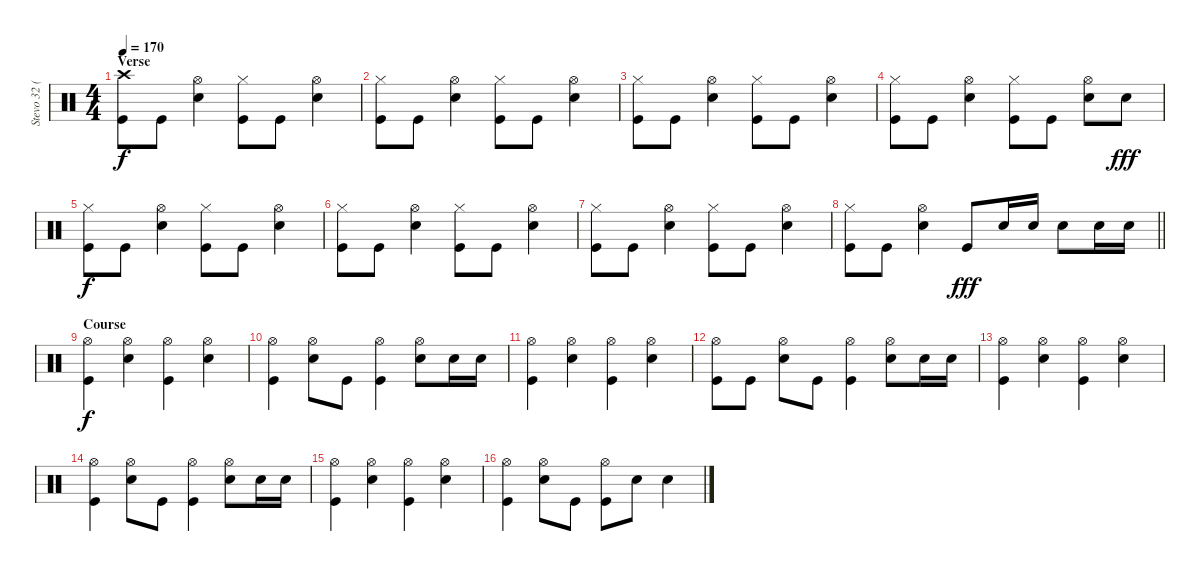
\track ("Stevo 32 (Drums)" "Stevo 32 (") {instrument percussion}
\staff {score}
\articulation defaults
\ts (4 4)
\section ("" "Verse")
\tempo 170
\clef neutral
\ks c
("Crash high (hit)" "Kick (hit)").8{dy f} "Kick (hit)".8 ("Hi-Hat (open)" "Electric Snare (hit)").4 ("Hi-Hat (closed)" "Kick (hit)").8 "Kick (hit)".8 ("Hi-Hat (open)" "Electric Snare (hit)").4 |
("Hi-Hat (closed)" "Kick (hit)").8 "Kick (hit)".8 ("Hi-Hat (open)" "Electric Snare (hit)").4 ("Hi-Hat (closed)" "Kick (hit)").8 "Kick (hit)".8 ("Hi-Hat (open)" "Electric Snare (hit)").4 |
("Hi-Hat (closed)" "Kick (hit)").8 "Kick (hit)".8 ("Hi-Hat (open)" "Electric Snare (hit)").4 ("Hi-Hat (closed)" "Kick (hit)").8 "Kick (hit)".8 ("Hi-Hat (open)" "Electric Snare (hit)").4 |
("Hi-Hat (closed)" "Kick (hit)").8 "Kick (hit)".8 ("Hi-Hat (open)" "Electric Snare (hit)").4 ("Hi-Hat (closed)" "Kick (hit)").8 "Kick (hit)".8 ("Hi-Hat (open)" "Electric Snare (hit)").8 "Electric Snare (hit)".8{dy fff} |
("Hi-Hat (closed)" "Kick (hit)").8{dy f} "Kick (hit)".8 ("Hi-Hat (open)" "Electric Snare (hit)").4 ("Hi-Hat (closed)" "Kick (hit)").8 "Kick (hit)".8 ("Hi-Hat (open)" "Electric Snare (hit)").4 |
("Hi-Hat (closed)" "Kick (hit)").8 "Kick (hit)".8 ("Hi-Hat (open)" "Electric Snare (hit)").4 ("Hi-Hat (closed)" "Kick (hit)").8 "Kick (hit)".8 ("Hi-Hat (open)" "Electric Snare (hit)").4 |
("Hi-Hat (closed)" "Kick (hit)").8 "Kick (hit)".8 ("Hi-Hat (open)" "Electric Snare (hit)").4 ("Hi-Hat (closed)" "Kick (hit)").8 "Kick (hit)".8 ("Hi-Hat (open)" "Electric Snare (hit)").4 |
\barLineRight lightlight
("Hi-Hat (closed)" "Kick (hit)").8 "Kick (hit)".8 ("Hi-Hat (open)" "Electric Snare (hit)").4 "Kick (hit)".8{dy fff} "Electric Snare (hit)".16 "Electric Snare (hit)".16 "Electric Snare (hit)".8 "Electric Snare (hit)".16 "Electric Snare (hit)".16 |
\section ("" "Course")
("Hi-Hat (open)" "Kick (hit)").4{dy f} ("Hi-Hat (open)" "Electric Snare (hit)").4 ("Hi-Hat (open)" "Kick (hit)").4 ("Hi-Hat (open)" "Electric Snare (hit)").4 |
("Hi-Hat (open)" "Kick (hit)").4 ("Hi-Hat (open)" "Electric Snare (hit)").8 "Kick (hit)".8 ("Hi-Hat (open)" "Kick (hit)").4 ("Hi-Hat (open)" "Electric Snare (hit)").8 "Electric Snare (hit)".16 "Electric Snare (hit)".16 |
("Hi-Hat (open)" "Kick (hit)").4 ("Hi-Hat (open)" "Electric Snare (hit)").4 ("Hi-Hat (open)" "Kick (hit)").4 ("Hi-Hat (open)" "Electric Snare (hit)").4 |
("Hi-Hat (open)" "Kick (hit)").8 "Kick (hit)".8 ("Hi-Hat (open)" "Electric Snare (hit)").8 "Kick (hit)".8 ("Hi-Hat (open)" "Kick (hit)").4 ("Hi-Hat (open)" "Electric Snare (hit)").8 "Electric Snare (hit)".16 "Electric Snare (hit)".16 |
("Hi-Hat (open)" "Kick (hit)").4 ("Hi-Hat (open)" "Electric Snare (hit)").4 ("Hi-Hat (open)" "Kick (hit)").4 ("Hi-Hat (open)" "Electric Snare (hit)").4 |
("Hi-Hat (open)" "Kick (hit)").4 ("Hi-Hat (open)" "Electric Snare (hit)").8 "Kick (hit)".8 ("Hi-Hat (open)" "Kick (hit)").4 ("Hi-Hat (open)" "Electric Snare (hit)").8 "Electric Snare (hit)".16 "Electric Snare (hit)".16 |
("Hi-Hat (open)" "Kick (hit)").4 ("Hi-Hat (open)" "Electric Snare (hit)").4 ("Hi-Hat (open)" "Kick (hit)").4 ("Hi-Hat (open)" "Electric Snare (hit)").4 |
("Hi-Hat (open)" "Kick (hit)").4 ("Hi-Hat (open)" "Electric Snare (hit)").8 "Kick (hit)".8 ("Hi-Hat (open)" "Kick (hit)").8 "Electric Snare (hit)".8 "Electric Snare (hit)".4
